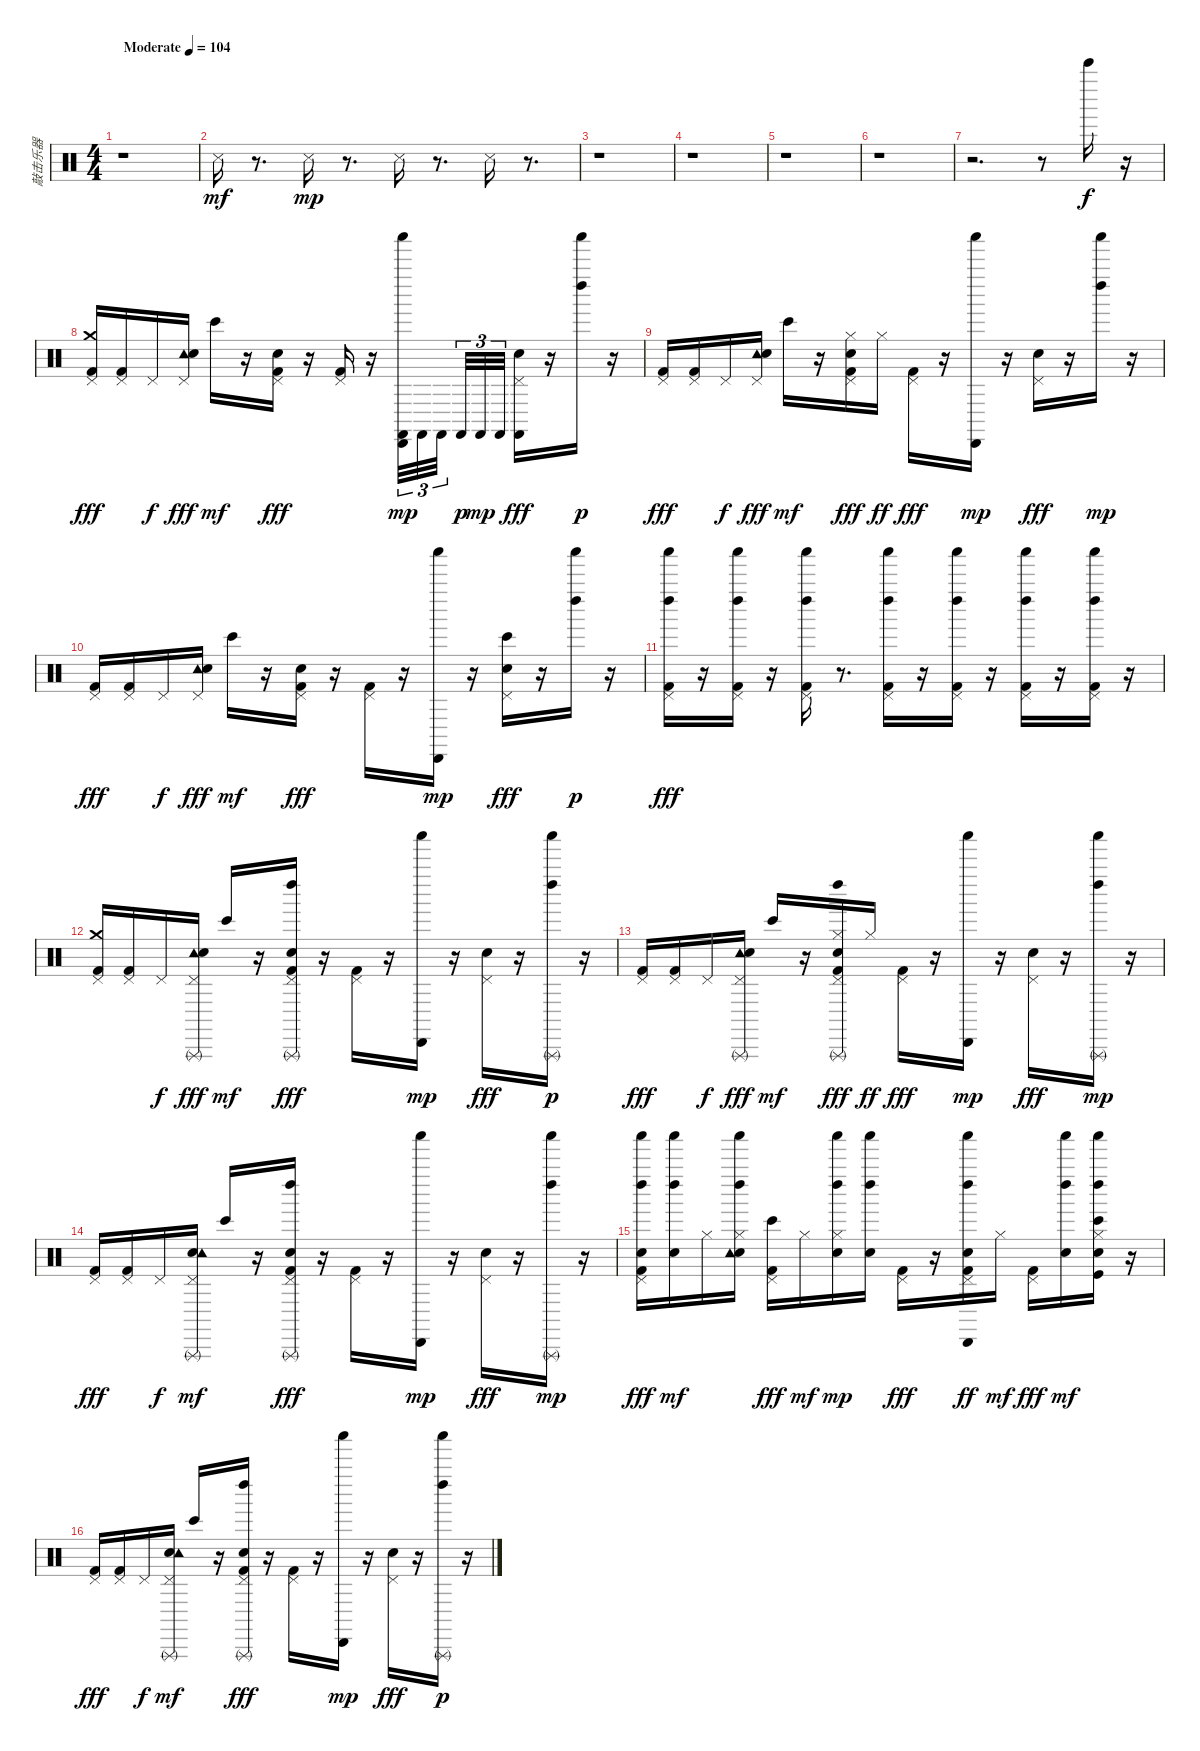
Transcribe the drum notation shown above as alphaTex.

\track ("敲击乐器" "敲击乐器") {instrument percussion}
\staff {score}
\articulation defaults
\ts (4 4)
\tempo (104 "Moderate")
\clef neutral
\ks c
r.1{dy mf} |
"Snare (side stick) 3".16 r.8{d} "Snare (side stick) 3".16{dy mp} r.8{d} "Snare (side stick) 3".16 r.8{d} "Snare (side stick) 3".16 r.8{d} |
r.1 |
r.1 |
r.1 |
r.1 |
r.2{d} r.8 "Bell Tree (hit)".16{dy f} r.16 |
("Pedal Hi-Hat (hit)" "Crash medium (hit)" "Kick (hit) 2").16{dy fff} ("Pedal Hi-Hat (hit)" "Kick (hit) 2").16 "Pedal Hi-Hat (hit)".16{dy f} ("Pedal Hi-Hat (hit)" "Tambourine (hit)" "Snare (hit) 2").16{dy fff} "Bongo High (hit)".16{dy mf} r.16 ("Hand Clap (hit)" "Pedal Hi-Hat (hit)" "Kick (hit) 2").16{dy fff} r.16 ("Pedal Hi-Hat (hit)" "Kick (hit) 2").16 r.16 ("Shaker (hit)" "Cabasa (hit)" "Castanets (hit)").32{tu (3 2) dy mp} "Castanets (hit)".32{tu (3 2)} "Castanets (hit)".32{tu (3 2) beam splitsecondary} "Castanets (hit)".32{tu (3 2) dy p} "Castanets (hit)".32{tu (3 2) dy mp} "Castanets (hit)".32{tu (3 2)} ("Pedal Hi-Hat (hit)" "Castanets (hit)" "Snare (hit) 2").16{dy fff} r.16 ("Shaker (hit)" "Left Maraca (hit)").16{dy p} r.16 |
("Pedal Hi-Hat (hit)" "Kick (hit) 2").16{dy fff} ("Pedal Hi-Hat (hit)" "Kick (hit) 2").16 "Pedal Hi-Hat (hit)".16{dy f} ("Pedal Hi-Hat (hit)" "Tambourine (hit)" "Snare (hit) 2").16{dy fff} "Bongo High (hit)".16{dy mf} r.16 ("Hand Clap (hit)" "Pedal Hi-Hat (hit)" "Hi-Hat (closed)" "Kick (hit) 2").16{dy fff} "Hi-Hat (closed)".16{dy ff} ("Pedal Hi-Hat (hit)" "Kick (hit) 2").16{dy fff} r.16 ("Shaker (hit)" "Cabasa (hit)").16{dy mp} r.16 ("Pedal Hi-Hat (hit)" "Snare (hit) 2").16{dy fff} r.16 ("Shaker (hit)" "Left Maraca (hit)").16{dy mp} r.16 |
("Pedal Hi-Hat (hit)" "Kick (hit) 2").16{dy fff} ("Pedal Hi-Hat (hit)" "Kick (hit) 2").16 "Pedal Hi-Hat (hit)".16{dy f} ("Pedal Hi-Hat (hit)" "Tambourine (hit)" "Snare (hit) 2").16{dy fff} "Bongo High (hit)".16{dy mf} r.16 ("Hand Clap (hit)" "Pedal Hi-Hat (hit)" "Kick (hit) 2").16{dy fff} r.16 ("Pedal Hi-Hat (hit)" "Kick (hit) 2").16 r.16 ("Shaker (hit)" "Cabasa (hit)").16{dy mp} r.16 ("Pedal Hi-Hat (hit)" "Bongo High (hit)" "Snare (hit) 2").16{dy fff} r.16 ("Shaker (hit)" "Left Maraca (hit)").16{dy p} r.16 |
("Left Maraca (hit)" "Shaker (hit)" "Pedal Hi-Hat (hit)" "Kick (hit) 2").16{dy fff} r.16 ("Left Maraca (hit)" "Shaker (hit)" "Pedal Hi-Hat (hit)" "Kick (hit) 2").16 r.16 ("Left Maraca (hit)" "Shaker (hit)" "Pedal Hi-Hat (hit)" "Kick (hit) 2").16 r.8{d} ("Left Maraca (hit)" "Shaker (hit)" "Pedal Hi-Hat (hit)" "Kick (hit) 2").16 r.16 ("Left Maraca (hit)" "Shaker (hit)" "Pedal Hi-Hat (hit)" "Kick (hit) 2").16 r.16 ("Left Maraca (hit)" "Shaker (hit)" "Pedal Hi-Hat (hit)" "Kick (hit) 2").16 r.16 ("Left Maraca (hit)" "Shaker (hit)" "Pedal Hi-Hat (hit)" "Kick (hit) 2").16 r.16 |
("Pedal Hi-Hat (hit)" "Crash medium (hit)" "Kick (hit) 2").16 ("Pedal Hi-Hat (hit)" "Kick (hit) 2").16 "Pedal Hi-Hat (hit)".16{dy f} ("Triangle (rnute)" "Pedal Hi-Hat (hit)" "Tambourine (hit)" "Snare (hit) 2").16{dy fff} "Bongo High (hit)".16{dy mf} r.16 ("Left Maraca (hit)" "Triangle (rnute)" "Hand Clap (hit)" "Pedal Hi-Hat (hit)" "Kick (hit) 2").16{dy fff} r.16 ("Pedal Hi-Hat (hit)" "Kick (hit) 2").16 r.16 ("Shaker (hit)" "Cabasa (hit)").16{dy mp} r.16 ("Pedal Hi-Hat (hit)" "Snare (hit) 2").16{dy fff} r.16 ("Triangle (rnute)" "Shaker (hit)" "Left Maraca (hit)").16{dy p} r.16 |
("Pedal Hi-Hat (hit)" "Kick (hit) 2").16{dy fff} ("Pedal Hi-Hat (hit)" "Kick (hit) 2").16 "Pedal Hi-Hat (hit)".16{dy f} ("Triangle (rnute)" "Pedal Hi-Hat (hit)" "Tambourine (hit)" "Snare (hit) 2").16{dy fff} "Bongo High (hit)".16{dy mf} r.16 ("Left Maraca (hit)" "Triangle (rnute)" "Hand Clap (hit)" "Pedal Hi-Hat (hit)" "Hi-Hat (closed)" "Kick (hit) 2").16{dy fff} "Hi-Hat (closed)".16{dy ff} ("Pedal Hi-Hat (hit)" "Kick (hit) 2").16{dy fff} r.16 ("Shaker (hit)" "Cabasa (hit)").16{dy mp} r.16 ("Pedal Hi-Hat (hit)" "Snare (hit) 2").16{dy fff} r.16 ("Triangle (rnute)" "Shaker (hit)" "Left Maraca (hit)").16{dy mp} r.16 |
("Kick (hit) 2" "Pedal Hi-Hat (hit)").16{dy fff} ("Kick (hit) 2" "Pedal Hi-Hat (hit)").16 "Pedal Hi-Hat (hit)".16{dy f} ("Triangle (rnute)" "Snare (hit) 2" "Tambourine (hit)" "Pedal Hi-Hat (hit)").16{dy mf} "Bongo High (hit)".16 r.16 ("Left Maraca (hit)" "Triangle (rnute)" "Hand Clap (hit)" "Kick (hit) 2" "Pedal Hi-Hat (hit)").16{dy fff} r.16 ("Kick (hit) 2" "Pedal Hi-Hat (hit)").16 r.16 ("Cabasa (hit)" "Shaker (hit)").16{dy mp} r.16 ("Snare (hit) 2" "Pedal Hi-Hat (hit)").16{dy fff} r.16 ("Triangle (rnute)" "Left Maraca (hit)" "Shaker (hit)").16{dy mp} r.16 |
("Shaker (hit)" "Left Maraca (hit)" "Hand Clap (hit)" "Pedal Hi-Hat (hit)" "Kick (hit) 2").16{dy fff} ("Shaker (hit)" "Left Maraca (hit)" "Hand Clap (hit)").16{dy mf} "Hi-Hat (closed)".16 ("Shaker (hit)" "Left Maraca (hit)" "Hi-Hat (closed)" "Hand Clap (hit)" "Tambourine (hit)").16 ("Bongo High (hit)" "Pedal Hi-Hat (hit)" "Kick (hit) 2").16{dy fff} "Hi-Hat (closed)".16{dy mf} ("Shaker (hit)" "Left Maraca (hit)" "Hi-Hat (closed)" "Hand Clap (hit)").16{dy mp} ("Shaker (hit)" "Left Maraca (hit)" "Hand Clap (hit)").16 ("Pedal Hi-Hat (hit)" "Kick (hit) 2").16{dy fff} r.16 ("Shaker (hit)" "Left Maraca (hit)" "Hand Clap (hit)" "Cabasa (hit)" "Pedal Hi-Hat (hit)" "Kick (hit) 2").16{dy ff} "Hi-Hat (closed)".16{dy mf} ("Pedal Hi-Hat (hit)" "Kick (hit) 2").16{dy fff} ("Shaker (hit)" "Left Maraca (hit)" "Hand Clap (hit)").16{dy mf} ("Shaker (hit)" "Left Maraca (hit)" "Hi-Hat (closed)" "Bongo High (hit)" "Hand Clap (hit)" "Kick (hit)").16 r.16 |
("Pedal Hi-Hat (hit)" "Kick (hit) 2").16{dy fff} ("Pedal Hi-Hat (hit)" "Kick (hit) 2").16 "Pedal Hi-Hat (hit)".16{dy f} ("Triangle (rnute)" "Snare (hit) 2" "Pedal Hi-Hat (hit)" "Tambourine (hit)").16{dy mf} "Bongo High (hit)".16 r.16 ("Left Maraca (hit)" "Triangle (rnute)" "Hand Clap (hit)" "Pedal Hi-Hat (hit)" "Kick (hit) 2").16{dy fff} r.16 ("Pedal Hi-Hat (hit)" "Kick (hit) 2").16 r.16 ("Shaker (hit)" "Cabasa (hit)").16{dy mp} r.16 ("Pedal Hi-Hat (hit)" "Snare (hit) 2").16{dy fff} r.16 ("Triangle (rnute)" "Shaker (hit)" "Left Maraca (hit)").16{dy p} r.16
